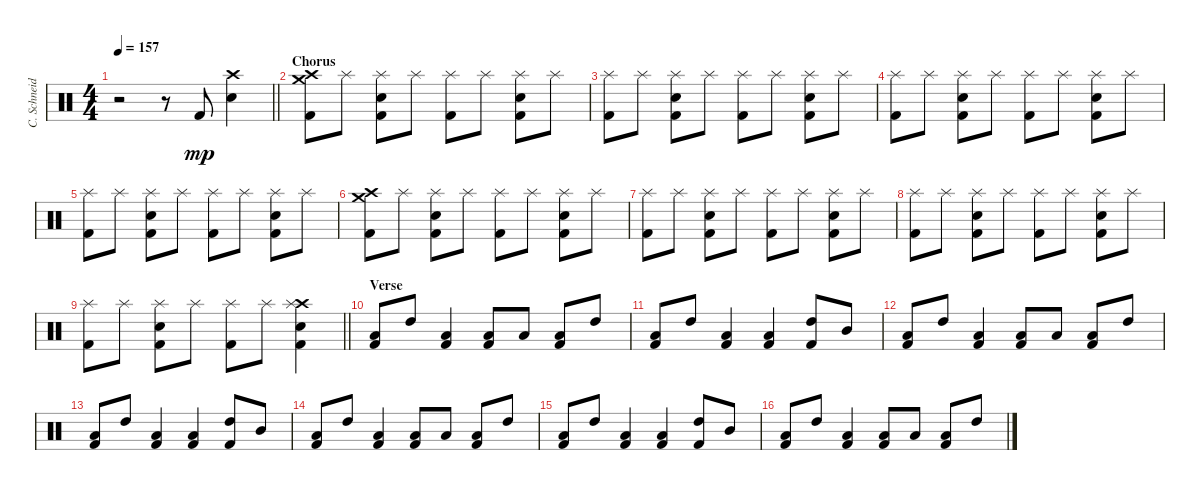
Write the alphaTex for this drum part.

\track ("C. Schneider" "C. Schneid") {instrument percussion}
\staff {score}
\articulation defaults
\ts (4 4)
\tempo 157
\clef neutral
\barLineRight lightlight
\ks c
r.2{dy mp} r.8 "Kick (hit) 2".8 ("Electric Snare (hit)" "Crash high (hit)").4 |
\section ("" "Chorus")
("Kick (hit) 2" "Crash high (hit)" "Crash medium (hit)").8 "Splash (hit)".8 ("Kick (hit) 2" "Electric Snare (hit)" "Splash (hit)").8 "Splash (hit)".8 ("Kick (hit) 2" "Splash (hit)").8 "Splash (hit)".8 ("Kick (hit) 2" "Electric Snare (hit)" "Splash (hit)").8 "Splash (hit)".8 |
("Kick (hit) 2" "Splash (hit)").8 "Splash (hit)".8 ("Kick (hit) 2" "Electric Snare (hit)" "Splash (hit)").8 "Splash (hit)".8 ("Kick (hit) 2" "Splash (hit)").8 "Splash (hit)".8 ("Kick (hit) 2" "Electric Snare (hit)" "Splash (hit)").8 "Splash (hit)".8 |
("Kick (hit) 2" "Splash (hit)").8 "Splash (hit)".8 ("Kick (hit) 2" "Electric Snare (hit)" "Splash (hit)").8 "Splash (hit)".8 ("Kick (hit) 2" "Splash (hit)").8 "Splash (hit)".8 ("Kick (hit) 2" "Electric Snare (hit)" "Splash (hit)").8 "Splash (hit)".8 |
("Kick (hit) 2" "Splash (hit)").8 "Splash (hit)".8 ("Kick (hit) 2" "Electric Snare (hit)" "Splash (hit)").8 "Splash (hit)".8 ("Kick (hit) 2" "Splash (hit)").8 "Splash (hit)".8 ("Kick (hit) 2" "Electric Snare (hit)" "Splash (hit)").8 "Splash (hit)".8 |
("Kick (hit) 2" "Crash high (hit)" "Crash medium (hit)").8 "Splash (hit)".8 ("Kick (hit) 2" "Electric Snare (hit)" "Splash (hit)").8 "Splash (hit)".8 ("Kick (hit) 2" "Splash (hit)").8 "Splash (hit)".8 ("Kick (hit) 2" "Electric Snare (hit)" "Splash (hit)").8 "Splash (hit)".8 |
("Kick (hit) 2" "Splash (hit)").8 "Splash (hit)".8 ("Kick (hit) 2" "Electric Snare (hit)" "Splash (hit)").8 "Splash (hit)".8 ("Kick (hit) 2" "Splash (hit)").8 "Splash (hit)".8 ("Kick (hit) 2" "Electric Snare (hit)" "Splash (hit)").8 "Splash (hit)".8 |
("Kick (hit) 2" "Splash (hit)").8 "Splash (hit)".8 ("Kick (hit) 2" "Electric Snare (hit)" "Splash (hit)").8 "Splash (hit)".8 ("Kick (hit) 2" "Splash (hit)").8 "Splash (hit)".8 ("Kick (hit) 2" "Electric Snare (hit)" "Splash (hit)").8 "Splash (hit)".8 |
\barLineRight lightlight
("Kick (hit) 2" "Splash (hit)").8 "Splash (hit)".8 ("Kick (hit) 2" "Electric Snare (hit)" "Splash (hit)").8 "Splash (hit)".8 ("Kick (hit) 2" "Splash (hit)").8 "Splash (hit)".8 ("Kick (hit) 2" "Electric Snare (hit)" "Crash high (hit)" "Splash (hit)").4 |
\section ("" "Verse")
("Kick (hit) 2" "Low Tom (hit)").8 "High Tom (hit)".8 ("Kick (hit) 2" "Low Tom (hit)").4 ("Kick (hit) 2" "Low Tom (hit)").8 "Low Tom (hit)".8 ("Kick (hit) 2" "Low Tom (hit)").8 "High Tom (hit)".8 |
("Kick (hit) 2" "Low Tom (hit)").8 "High Tom (hit)".8 ("Kick (hit) 2" "Low Tom (hit)").4 ("Kick (hit) 2" "Low Tom (hit)").4 ("Kick (hit) 2" "High Tom (hit)").8 "Mid Tom (hit)".8 |
("Kick (hit) 2" "Low Tom (hit)").8 "High Tom (hit)".8 ("Kick (hit) 2" "Low Tom (hit)").4 ("Kick (hit) 2" "Low Tom (hit)").8 "Low Tom (hit)".8 ("Kick (hit) 2" "Low Tom (hit)").8 "High Tom (hit)".8 |
("Kick (hit) 2" "Low Tom (hit)").8 "High Tom (hit)".8 ("Kick (hit) 2" "Low Tom (hit)").4 ("Kick (hit) 2" "Low Tom (hit)").4 ("Kick (hit) 2" "High Tom (hit)").8 "Mid Tom (hit)".8 |
("Kick (hit) 2" "Low Tom (hit)").8 "High Tom (hit)".8 ("Kick (hit) 2" "Low Tom (hit)").4 ("Kick (hit) 2" "Low Tom (hit)").8 "Low Tom (hit)".8 ("Kick (hit) 2" "Low Tom (hit)").8 "High Tom (hit)".8 |
("Kick (hit) 2" "Low Tom (hit)").8 "High Tom (hit)".8 ("Kick (hit) 2" "Low Tom (hit)").4 ("Kick (hit) 2" "Low Tom (hit)").4 ("Kick (hit) 2" "High Tom (hit)").8 "Mid Tom (hit)".8 |
("Kick (hit) 2" "Low Tom (hit)").8 "High Tom (hit)".8 ("Kick (hit) 2" "Low Tom (hit)").4 ("Kick (hit) 2" "Low Tom (hit)").8 "Low Tom (hit)".8 ("Kick (hit) 2" "Low Tom (hit)").8 "High Tom (hit)".8
